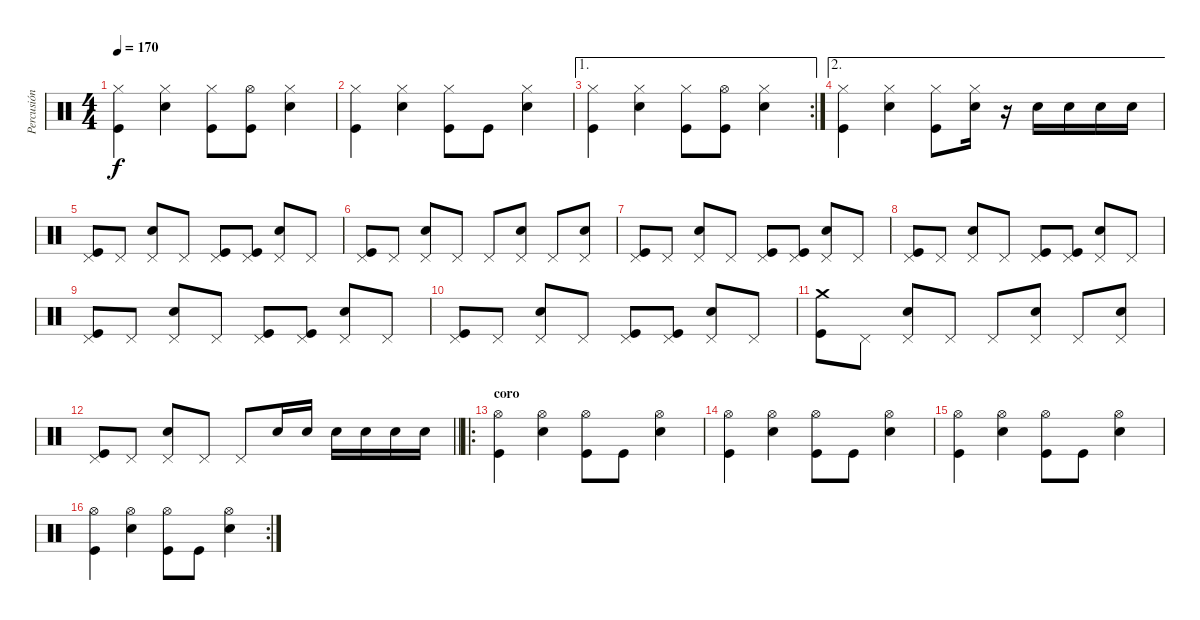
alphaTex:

\track ("Percusión" "Percusión") {instrument percussion}
\staff {score}
\articulation defaults
\ts (4 4)
\tempo 170
\clef neutral
\ks c
("Hi-Hat (closed)" "Kick (hit)").4{dy f} ("Hi-Hat (closed)" "Electric Snare (hit)").4 ("Hi-Hat (closed)" "Kick (hit)").8 ("Hi-Hat (open)" "Kick (hit)").8 ("Hi-Hat (closed)" "Electric Snare (hit)").4 |
("Hi-Hat (closed)" "Kick (hit)").4 ("Hi-Hat (closed)" "Electric Snare (hit)").4 ("Hi-Hat (closed)" "Kick (hit)").8 "Kick (hit)".8 ("Hi-Hat (closed)" "Electric Snare (hit)").4 |
\ae 1
\rc 2
("Hi-Hat (closed)" "Kick (hit)").4 ("Hi-Hat (closed)" "Electric Snare (hit)").4 ("Hi-Hat (closed)" "Kick (hit)").8 ("Hi-Hat (open)" "Kick (hit)").8 ("Hi-Hat (closed)" "Electric Snare (hit)").4 |
\ae 2
("Hi-Hat (closed)" "Kick (hit)").4 ("Hi-Hat (closed)" "Electric Snare (hit)").4 ("Hi-Hat (closed)" "Kick (hit)").8 ("Hi-Hat (closed)" "Electric Snare (hit)").16 r.16 "Electric Snare (hit)".16 "Electric Snare (hit)".16 "Electric Snare (hit)".16 "Electric Snare (hit)".16 |
("Pedal Hi-Hat (hit)" "Kick (hit)").8 "Pedal Hi-Hat (hit)".8 ("Pedal Hi-Hat (hit)" "Electric Snare (hit)").8 "Pedal Hi-Hat (hit)".8 ("Pedal Hi-Hat (hit)" "Kick (hit)").8 ("Pedal Hi-Hat (hit)" "Kick (hit)").8 ("Pedal Hi-Hat (hit)" "Electric Snare (hit)").8 "Pedal Hi-Hat (hit)".8 |
("Pedal Hi-Hat (hit)" "Kick (hit)").8 "Pedal Hi-Hat (hit)".8 ("Pedal Hi-Hat (hit)" "Electric Snare (hit)").8 "Pedal Hi-Hat (hit)".8 "Pedal Hi-Hat (hit)".8 ("Pedal Hi-Hat (hit)" "Electric Snare (hit)").8 "Pedal Hi-Hat (hit)".8 ("Pedal Hi-Hat (hit)" "Electric Snare (hit)").8 |
("Pedal Hi-Hat (hit)" "Kick (hit)").8 "Pedal Hi-Hat (hit)".8 ("Pedal Hi-Hat (hit)" "Electric Snare (hit)").8 "Pedal Hi-Hat (hit)".8 ("Pedal Hi-Hat (hit)" "Kick (hit)").8 ("Pedal Hi-Hat (hit)" "Kick (hit)").8 ("Pedal Hi-Hat (hit)" "Electric Snare (hit)").8 "Pedal Hi-Hat (hit)".8 |
("Pedal Hi-Hat (hit)" "Kick (hit)").8 "Pedal Hi-Hat (hit)".8 ("Pedal Hi-Hat (hit)" "Electric Snare (hit)").8 "Pedal Hi-Hat (hit)".8 ("Pedal Hi-Hat (hit)" "Kick (hit)").8 ("Pedal Hi-Hat (hit)" "Kick (hit)").8 ("Pedal Hi-Hat (hit)" "Electric Snare (hit)").8 "Pedal Hi-Hat (hit)".8 |
("Pedal Hi-Hat (hit)" "Kick (hit)").8 "Pedal Hi-Hat (hit)".8 ("Pedal Hi-Hat (hit)" "Electric Snare (hit)").8 "Pedal Hi-Hat (hit)".8 ("Pedal Hi-Hat (hit)" "Kick (hit)").8 ("Pedal Hi-Hat (hit)" "Kick (hit)").8 ("Pedal Hi-Hat (hit)" "Electric Snare (hit)").8 "Pedal Hi-Hat (hit)".8 |
("Pedal Hi-Hat (hit)" "Kick (hit)").8 "Pedal Hi-Hat (hit)".8 ("Pedal Hi-Hat (hit)" "Electric Snare (hit)").8 "Pedal Hi-Hat (hit)".8 ("Pedal Hi-Hat (hit)" "Kick (hit)").8 ("Pedal Hi-Hat (hit)" "Kick (hit)").8 ("Pedal Hi-Hat (hit)" "Electric Snare (hit)").8 "Pedal Hi-Hat (hit)".8 |
("Crash medium (hit)" "Kick (hit)").8 "Pedal Hi-Hat (hit)".8 ("Pedal Hi-Hat (hit)" "Electric Snare (hit)").8 "Pedal Hi-Hat (hit)".8 "Pedal Hi-Hat (hit)".8 ("Pedal Hi-Hat (hit)" "Electric Snare (hit)").8 "Pedal Hi-Hat (hit)".8 ("Pedal Hi-Hat (hit)" "Electric Snare (hit)").8 |
\barLineRight lightlight
("Pedal Hi-Hat (hit)" "Kick (hit)").8 "Pedal Hi-Hat (hit)".8 ("Pedal Hi-Hat (hit)" "Electric Snare (hit)").8 "Pedal Hi-Hat (hit)".8 "Pedal Hi-Hat (hit)".8 "Electric Snare (hit)".16 "Electric Snare (hit)".16 "Electric Snare (hit)".16 "Electric Snare (hit)".16 "Electric Snare (hit)".16 "Electric Snare (hit)".16 |
\ro
\section ("" "coro")
("Hi-Hat (open)" "Kick (hit)").4 ("Hi-Hat (open)" "Electric Snare (hit)").4 ("Hi-Hat (open)" "Kick (hit)").8 "Kick (hit)".8 ("Hi-Hat (open)" "Electric Snare (hit)").4 |
("Hi-Hat (open)" "Kick (hit)").4 ("Hi-Hat (open)" "Electric Snare (hit)").4 ("Hi-Hat (open)" "Kick (hit)").8 "Kick (hit)".8 ("Hi-Hat (open)" "Electric Snare (hit)").4 |
("Hi-Hat (open)" "Kick (hit)").4 ("Hi-Hat (open)" "Electric Snare (hit)").4 ("Hi-Hat (open)" "Kick (hit)").8 "Kick (hit)".8 ("Hi-Hat (open)" "Electric Snare (hit)").4 |
\rc 2
("Hi-Hat (open)" "Kick (hit)").4 ("Hi-Hat (open)" "Electric Snare (hit)").4 ("Hi-Hat (open)" "Kick (hit)").8 "Kick (hit)".8 ("Hi-Hat (open)" "Electric Snare (hit)").4
